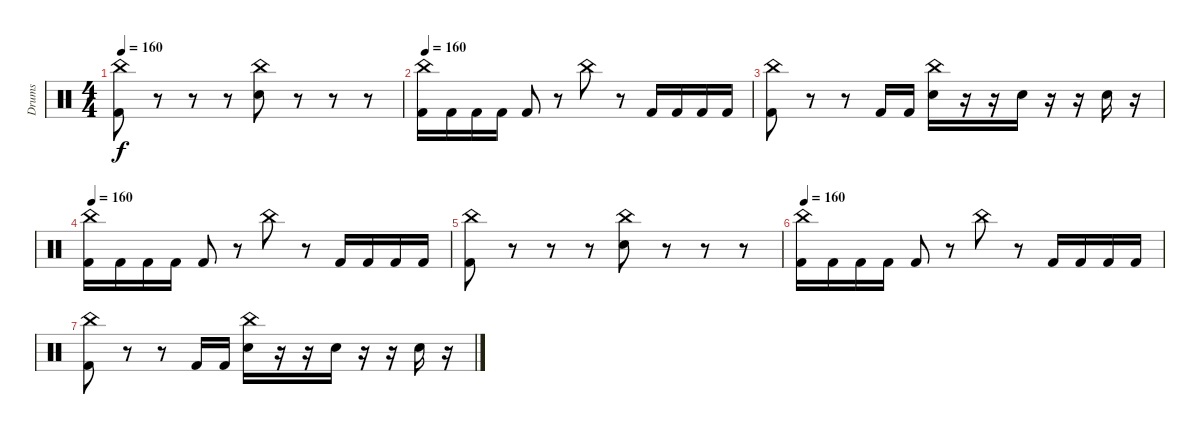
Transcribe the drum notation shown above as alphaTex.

\track ("Drums" "Drums") {instrument percussion}
\staff {score}
\articulation defaults
\ts (4 4)
\tempo 160
\clef neutral
\ks c
("China (hit)" "Kick (hit) 2").8{dy f} r.8 r.8 r.8 ("China (hit)" "Electric Snare (hit)").8 r.8 r.8 r.8 |
\tempo 160
("China (hit)" "Kick (hit) 2").16 "Kick (hit) 2".16 "Kick (hit) 2".16 "Kick (hit) 2".16 "Kick (hit) 2".8 r.8 "China (hit)".8 r.8 "Kick (hit) 2".16 "Kick (hit) 2".16 "Kick (hit) 2".16 "Kick (hit) 2".16 |
("China (hit)" "Kick (hit) 2").8 r.8 r.8 "Kick (hit) 2".16 "Kick (hit) 2".16 ("China (hit)" "Electric Snare (hit)").16 r.16 r.16 "Electric Snare (hit)".16 r.16 r.16 "Electric Snare (hit)".16 r.16 |
\tempo 160
("China (hit)" "Kick (hit) 2").16 "Kick (hit) 2".16 "Kick (hit) 2".16 "Kick (hit) 2".16 "Kick (hit) 2".8 r.8 "China (hit)".8 r.8 "Kick (hit) 2".16 "Kick (hit) 2".16 "Kick (hit) 2".16 "Kick (hit) 2".16 |
("China (hit)" "Kick (hit) 2").8 r.8 r.8 r.8 ("China (hit)" "Electric Snare (hit)").8 r.8 r.8 r.8 |
\tempo 160
("China (hit)" "Kick (hit) 2").16 "Kick (hit) 2".16 "Kick (hit) 2".16 "Kick (hit) 2".16 "Kick (hit) 2".8 r.8 "China (hit)".8 r.8 "Kick (hit) 2".16 "Kick (hit) 2".16 "Kick (hit) 2".16 "Kick (hit) 2".16 |
("China (hit)" "Kick (hit) 2").8 r.8 r.8 "Kick (hit) 2".16 "Kick (hit) 2".16 ("China (hit)" "Electric Snare (hit)").16 r.16 r.16 "Electric Snare (hit)".16 r.16 r.16 "Electric Snare (hit)".16 r.16
